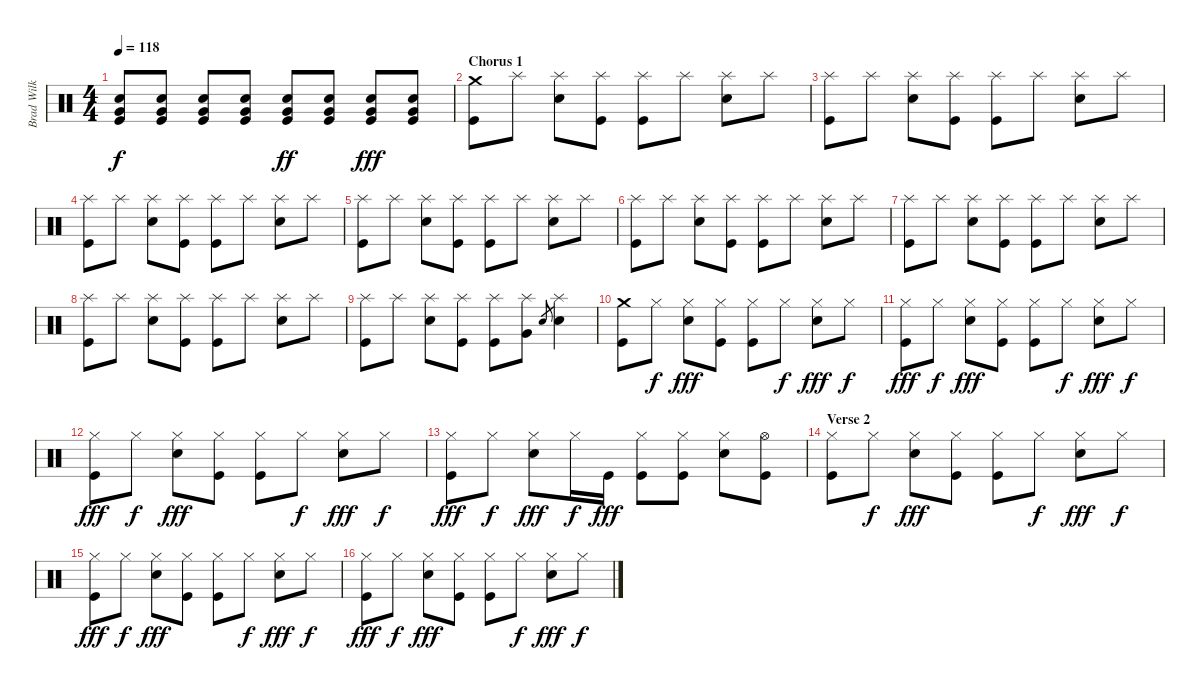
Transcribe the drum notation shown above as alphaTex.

\track ("Brad Wilk - Drums" "Brad Wilk ") {instrument percussion}
\staff {score}
\articulation defaults
\ts (4 4)
\tempo 118
\clef neutral
\ks c
("Snare (hit) 2" "Very Low Tom (hit)" "Kick (hit)").8{dy f} ("Snare (hit) 2" "Very Low Tom (hit)" "Kick (hit)").8 ("Snare (hit) 2" "Very Low Tom (hit)" "Kick (hit)").8 ("Snare (hit) 2" "Very Low Tom (hit)" "Kick (hit)").8 ("Snare (hit) 2" "Very Low Tom (hit)" "Kick (hit)").8{dy ff} ("Snare (hit) 2" "Very Low Tom (hit)" "Kick (hit)").8 ("Snare (hit) 2" "Very Low Tom (hit)" "Kick (hit)").8{dy fff} ("Snare (hit) 2" "Very Low Tom (hit)" "Kick (hit)").8 |
\section ("" "Chorus 1")
("Crash medium (hit)" "Kick (hit)").8 "Splash (hit)".8 ("Splash (hit)" "Snare (hit) 2").8 ("Splash (hit)" "Kick (hit)").8 ("Splash (hit)" "Kick (hit)").8 "Splash (hit)".8 ("Splash (hit)" "Snare (hit) 2").8 "Splash (hit)".8 |
("Splash (hit)" "Kick (hit)").8 "Splash (hit)".8 ("Splash (hit)" "Snare (hit) 2").8 ("Splash (hit)" "Kick (hit)").8 ("Splash (hit)" "Kick (hit)").8 "Splash (hit)".8 ("Splash (hit)" "Snare (hit) 2").8 "Splash (hit)".8 |
("Splash (hit)" "Kick (hit)").8 "Splash (hit)".8 ("Splash (hit)" "Snare (hit) 2").8 ("Splash (hit)" "Kick (hit)").8 ("Splash (hit)" "Kick (hit)").8 "Splash (hit)".8 ("Splash (hit)" "Snare (hit) 2").8 "Splash (hit)".8 |
("Splash (hit)" "Kick (hit)").8 "Splash (hit)".8 ("Splash (hit)" "Snare (hit) 2").8 ("Splash (hit)" "Kick (hit)").8 ("Splash (hit)" "Kick (hit)").8 "Splash (hit)".8 ("Splash (hit)" "Snare (hit) 2").8 "Splash (hit)".8 |
("Splash (hit)" "Kick (hit)").8 "Splash (hit)".8 ("Splash (hit)" "Snare (hit) 2").8 ("Splash (hit)" "Kick (hit)").8 ("Splash (hit)" "Kick (hit)").8 "Splash (hit)".8 ("Splash (hit)" "Snare (hit) 2").8 "Splash (hit)".8 |
("Splash (hit)" "Kick (hit)").8 "Splash (hit)".8 ("Splash (hit)" "Snare (hit) 2").8 ("Splash (hit)" "Kick (hit)").8 ("Splash (hit)" "Kick (hit)").8 "Splash (hit)".8 ("Splash (hit)" "Snare (hit) 2").8 "Splash (hit)".8 |
("Splash (hit)" "Kick (hit)").8 "Splash (hit)".8 ("Splash (hit)" "Snare (hit) 2").8 ("Splash (hit)" "Kick (hit)").8 ("Splash (hit)" "Kick (hit)").8 "Splash (hit)".8 ("Splash (hit)" "Snare (hit) 2").8 "Splash (hit)".8 |
("Splash (hit)" "Kick (hit)").8 "Splash (hit)".8 ("Splash (hit)" "Snare (hit) 2").8 ("Splash (hit)" "Kick (hit)").8 ("Splash (hit)" "Kick (hit)").8 ("Splash (hit)" "Very Low Tom (hit)").8 "Snare (hit) 2".8{gr} ("Splash (hit)" "Snare (hit) 2").4 |
("Crash medium (hit)" "Kick (hit)").8 "Hi-Hat (closed)".8{dy f} ("Hi-Hat (closed)" "Snare (hit) 2").8{dy fff} ("Hi-Hat (closed)" "Kick (hit)").8 ("Hi-Hat (closed)" "Kick (hit)").8 "Hi-Hat (closed)".8{dy f} ("Hi-Hat (closed)" "Snare (hit) 2").8{dy fff} "Hi-Hat (closed)".8{dy f} |
("Hi-Hat (closed)" "Kick (hit)").8{dy fff} "Hi-Hat (closed)".8{dy f} ("Hi-Hat (closed)" "Snare (hit) 2").8{dy fff} ("Hi-Hat (closed)" "Kick (hit)").8 ("Hi-Hat (closed)" "Kick (hit)").8 "Hi-Hat (closed)".8{dy f} ("Hi-Hat (closed)" "Snare (hit) 2").8{dy fff} "Hi-Hat (closed)".8{dy f} |
("Hi-Hat (closed)" "Kick (hit)").8{dy fff} "Hi-Hat (closed)".8{dy f} ("Hi-Hat (closed)" "Snare (hit) 2").8{dy fff} ("Hi-Hat (closed)" "Kick (hit)").8 ("Hi-Hat (closed)" "Kick (hit)").8 "Hi-Hat (closed)".8{dy f} ("Hi-Hat (closed)" "Snare (hit) 2").8{dy fff} "Hi-Hat (closed)".8{dy f} |
("Hi-Hat (closed)" "Kick (hit)").8{dy fff} "Hi-Hat (closed)".8{dy f} ("Hi-Hat (closed)" "Snare (hit) 2").8{dy fff} "Hi-Hat (closed)".16{dy f} "Kick (hit)".16{dy fff} ("Hi-Hat (closed)" "Kick (hit)").8 ("Hi-Hat (closed)" "Kick (hit)").8 ("Hi-Hat (closed)" "Snare (hit) 2").8 ("Hi-Hat (open)" "Kick (hit)").8 |
\section ("" "Verse 2")
("Hi-Hat (closed)" "Kick (hit)").8 "Hi-Hat (closed)".8{dy f} ("Hi-Hat (closed)" "Snare (hit) 2").8{dy fff} ("Hi-Hat (closed)" "Kick (hit)").8 ("Hi-Hat (closed)" "Kick (hit)").8 "Hi-Hat (closed)".8{dy f} ("Hi-Hat (closed)" "Snare (hit) 2").8{dy fff} "Hi-Hat (closed)".8{dy f} |
("Hi-Hat (closed)" "Kick (hit)").8{dy fff} "Hi-Hat (closed)".8{dy f} ("Hi-Hat (closed)" "Snare (hit) 2").8{dy fff} ("Hi-Hat (closed)" "Kick (hit)").8 ("Hi-Hat (closed)" "Kick (hit)").8 "Hi-Hat (closed)".8{dy f} ("Hi-Hat (closed)" "Snare (hit) 2").8{dy fff} "Hi-Hat (closed)".8{dy f} |
("Hi-Hat (closed)" "Kick (hit)").8{dy fff} "Hi-Hat (closed)".8{dy f} ("Hi-Hat (closed)" "Snare (hit) 2").8{dy fff} ("Hi-Hat (closed)" "Kick (hit)").8 ("Hi-Hat (closed)" "Kick (hit)").8 "Hi-Hat (closed)".8{dy f} ("Hi-Hat (closed)" "Snare (hit) 2").8{dy fff} "Hi-Hat (closed)".8{dy f}
